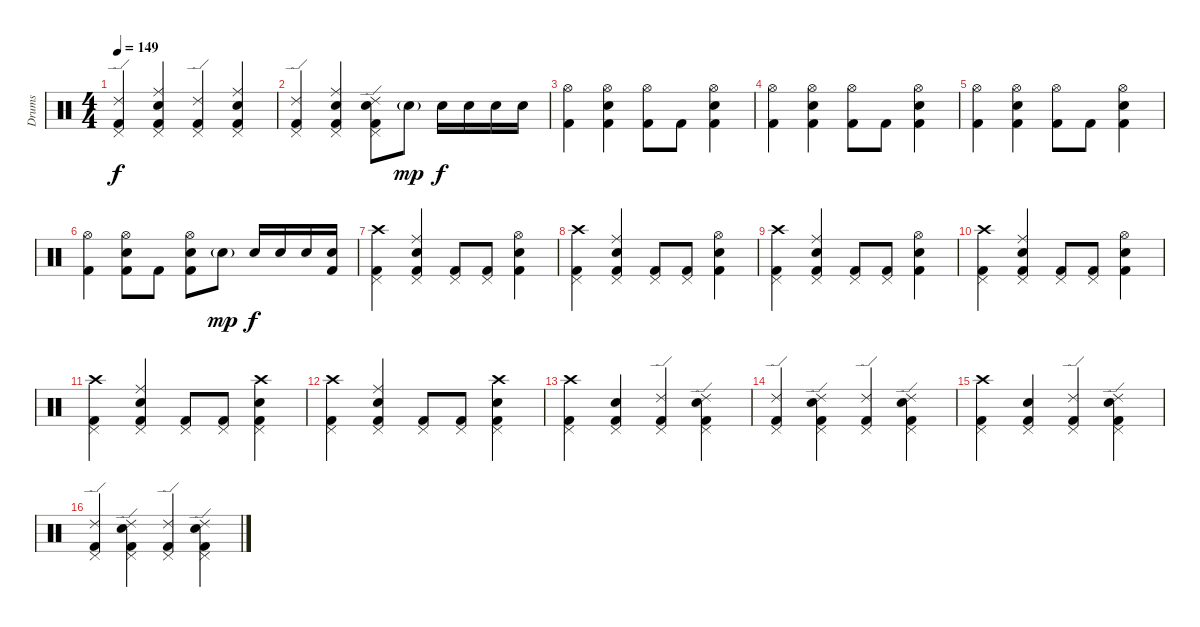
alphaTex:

\track ("Drums" "Drums") {instrument percussion}
\staff {score}
\articulation defaults
\ts (4 4)
\tempo 149
\clef neutral
\ks c
("Ride (edge) 2" "Kick (hit) 2" "Pedal Hi-Hat (hit)").4{dy f} ("Ride (middle)" "Electric Snare (hit)" "Kick (hit) 2" "Pedal Hi-Hat (hit)").4 ("Ride (edge) 2" "Kick (hit) 2" "Pedal Hi-Hat (hit)").4 ("Ride (middle)" "Electric Snare (hit)" "Kick (hit) 2" "Pedal Hi-Hat (hit)").4 |
("Ride (edge) 2" "Kick (hit) 2" "Pedal Hi-Hat (hit)").4 ("Ride (middle)" "Electric Snare (hit)" "Kick (hit) 2" "Pedal Hi-Hat (hit)").4 ("Ride (edge) 2" "Electric Snare (hit)" "Kick (hit) 2" "Pedal Hi-Hat (hit)").8 "Electric Snare (hit)"{g}.8{dy mp} "Electric Snare (hit)".16{dy f} "Electric Snare (hit)".16 "Electric Snare (hit)".16 "Electric Snare (hit)".16 |
("Hi-Hat (open)" "Kick (hit) 2").4 ("Hi-Hat (open)" "Electric Snare (hit)" "Kick (hit) 2").4 ("Hi-Hat (open)" "Kick (hit) 2").8 "Kick (hit) 2".8 ("Hi-Hat (open)" "Electric Snare (hit)" "Kick (hit) 2").4 |
("Hi-Hat (open)" "Kick (hit) 2").4 ("Hi-Hat (open)" "Electric Snare (hit)" "Kick (hit) 2").4 ("Hi-Hat (open)" "Kick (hit) 2").8 "Kick (hit) 2".8 ("Hi-Hat (open)" "Electric Snare (hit)" "Kick (hit) 2").4 |
("Hi-Hat (open)" "Kick (hit) 2").4 ("Hi-Hat (open)" "Electric Snare (hit)" "Kick (hit) 2").4 ("Hi-Hat (open)" "Kick (hit) 2").8 "Kick (hit) 2".8 ("Hi-Hat (open)" "Electric Snare (hit)" "Kick (hit) 2").4 |
("Hi-Hat (open)" "Kick (hit) 2").4 ("Hi-Hat (open)" "Electric Snare (hit)" "Kick (hit) 2").8 "Kick (hit) 2".8 ("Hi-Hat (open)" "Electric Snare (hit)" "Kick (hit) 2").8 "Electric Snare (hit)"{g}.8{dy mp} "Snare (hit) 2".16{dy f} "Snare (hit) 2".16 "Snare (hit) 2".16 ("Electric Snare (hit)" "Kick (hit) 2").16 |
("Crash high (hit)" "Kick (hit) 2" "Pedal Hi-Hat (hit)").4 ("Ride (middle)" "Electric Snare (hit)" "Kick (hit) 2" "Pedal Hi-Hat (hit)").4 ("Kick (hit) 2" "Pedal Hi-Hat (hit)").8 ("Kick (hit) 2" "Pedal Hi-Hat (hit)").8 ("Hi-Hat (open)" "Electric Snare (hit)" "Kick (hit) 2").4 |
("Crash high (hit)" "Kick (hit) 2" "Pedal Hi-Hat (hit)").4 ("Ride (middle)" "Electric Snare (hit)" "Kick (hit) 2" "Pedal Hi-Hat (hit)").4 ("Kick (hit) 2" "Pedal Hi-Hat (hit)").8 ("Kick (hit) 2" "Pedal Hi-Hat (hit)").8 ("Hi-Hat (open)" "Electric Snare (hit)" "Kick (hit) 2").4 |
("Crash high (hit)" "Kick (hit) 2" "Pedal Hi-Hat (hit)").4 ("Ride (middle)" "Electric Snare (hit)" "Kick (hit) 2" "Pedal Hi-Hat (hit)").4 ("Kick (hit) 2" "Pedal Hi-Hat (hit)").8 ("Kick (hit) 2" "Pedal Hi-Hat (hit)").8 ("Hi-Hat (open)" "Electric Snare (hit)" "Kick (hit) 2").4 |
("Crash high (hit)" "Kick (hit) 2" "Pedal Hi-Hat (hit)").4 ("Ride (middle)" "Electric Snare (hit)" "Kick (hit) 2" "Pedal Hi-Hat (hit)").4 ("Kick (hit) 2" "Pedal Hi-Hat (hit)").8 ("Kick (hit) 2" "Pedal Hi-Hat (hit)").8 ("Hi-Hat (open)" "Electric Snare (hit)" "Kick (hit) 2").4 |
("Crash high (hit)" "Kick (hit) 2" "Pedal Hi-Hat (hit)").4 ("Ride (middle)" "Electric Snare (hit)" "Kick (hit) 2" "Pedal Hi-Hat (hit)").4 ("Kick (hit) 2" "Pedal Hi-Hat (hit)").8 ("Kick (hit) 2" "Pedal Hi-Hat (hit)").8 ("Crash high (hit)" "Electric Snare (hit)" "Kick (hit) 2" "Pedal Hi-Hat (hit)").4 |
("Crash high (hit)" "Kick (hit) 2" "Pedal Hi-Hat (hit)").4 ("Ride (middle)" "Electric Snare (hit)" "Kick (hit) 2" "Pedal Hi-Hat (hit)").4 ("Kick (hit) 2" "Pedal Hi-Hat (hit)").8 ("Kick (hit) 2" "Pedal Hi-Hat (hit)").8 ("Crash high (hit)" "Electric Snare (hit)" "Kick (hit) 2" "Pedal Hi-Hat (hit)").4 |
("Crash high (hit)" "Kick (hit) 2" "Pedal Hi-Hat (hit)").4 ("Electric Snare (hit)" "Kick (hit) 2" "Pedal Hi-Hat (hit)").4 ("Ride (edge) 2" "Kick (hit) 2" "Pedal Hi-Hat (hit)").4 ("Ride (edge) 2" "Electric Snare (hit)" "Kick (hit) 2" "Pedal Hi-Hat (hit)").4 |
("Ride (edge) 2" "Kick (hit) 2" "Pedal Hi-Hat (hit)").4 ("Ride (edge) 2" "Electric Snare (hit)" "Kick (hit) 2" "Pedal Hi-Hat (hit)").4 ("Ride (edge) 2" "Kick (hit) 2" "Pedal Hi-Hat (hit)").4 ("Ride (edge) 2" "Electric Snare (hit)" "Kick (hit) 2" "Pedal Hi-Hat (hit)").4 |
("Crash high (hit)" "Kick (hit) 2" "Pedal Hi-Hat (hit)").4 ("Electric Snare (hit)" "Kick (hit) 2" "Pedal Hi-Hat (hit)").4 ("Ride (edge) 2" "Kick (hit) 2" "Pedal Hi-Hat (hit)").4 ("Ride (edge) 2" "Electric Snare (hit)" "Kick (hit) 2" "Pedal Hi-Hat (hit)").4 |
("Ride (edge) 2" "Kick (hit) 2" "Pedal Hi-Hat (hit)").4 ("Ride (edge) 2" "Electric Snare (hit)" "Kick (hit) 2" "Pedal Hi-Hat (hit)").4 ("Ride (edge) 2" "Kick (hit) 2" "Pedal Hi-Hat (hit)").4 ("Ride (edge) 2" "Electric Snare (hit)" "Kick (hit) 2" "Pedal Hi-Hat (hit)").4
